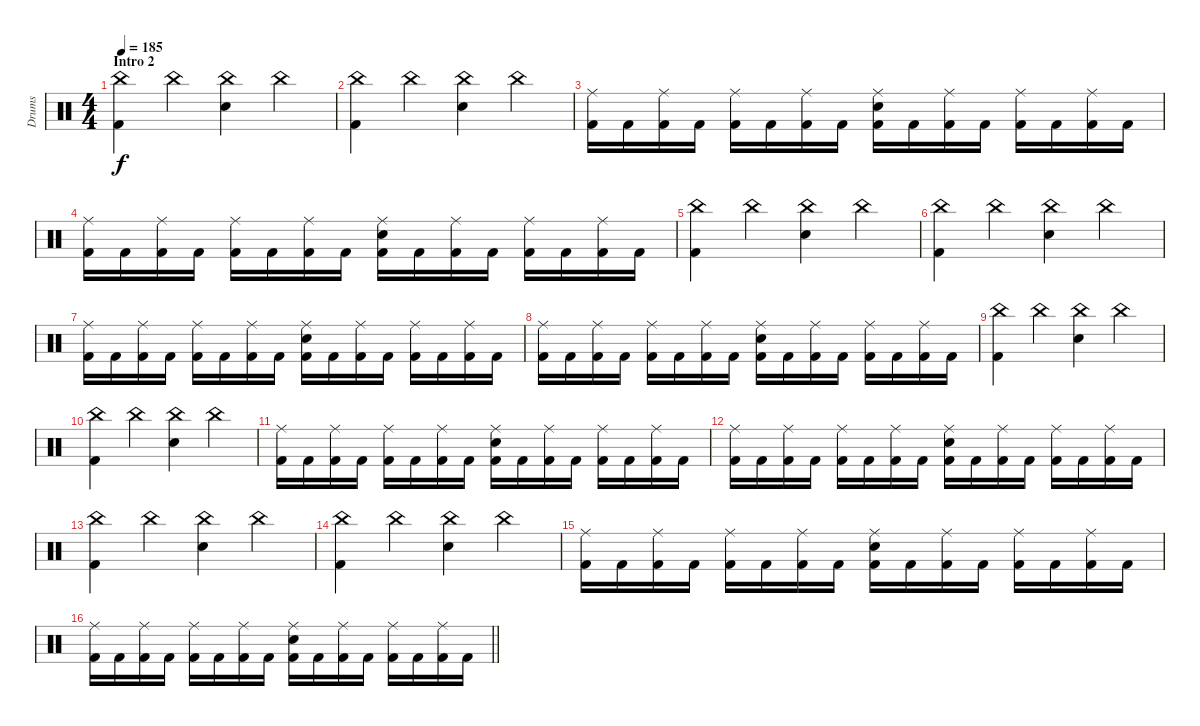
\track ("Drums" "Drums") {instrument percussion}
\staff {score}
\articulation defaults
\ts (4 4)
\section ("" "Intro 2")
\tempo 185
\clef neutral
\ks c
("China (hit)" "Kick (hit) 2").4{dy f} "China (hit)".4 ("China (hit)" "Electric Snare (hit)").4 "China (hit)".4 |
("China (hit)" "Kick (hit) 2").4 "China (hit)".4 ("China (hit)" "Electric Snare (hit)").4 "China (hit)".4 |
("Ride (middle)" "Kick (hit) 2").16 "Kick (hit) 2".16 ("Ride (middle)" "Kick (hit) 2").16 "Kick (hit) 2".16 ("Ride (middle)" "Kick (hit) 2").16 "Kick (hit) 2".16 ("Ride (middle)" "Kick (hit) 2").16 "Kick (hit) 2".16 ("Ride (middle)" "Electric Snare (hit)" "Kick (hit) 2").16 "Kick (hit) 2".16 ("Ride (middle)" "Kick (hit) 2").16 "Kick (hit) 2".16 ("Ride (middle)" "Kick (hit) 2").16 "Kick (hit) 2".16 ("Ride (middle)" "Kick (hit) 2").16 "Kick (hit) 2".16 |
("Ride (middle)" "Kick (hit) 2").16 "Kick (hit) 2".16 ("Ride (middle)" "Kick (hit) 2").16 "Kick (hit) 2".16 ("Ride (middle)" "Kick (hit) 2").16 "Kick (hit) 2".16 ("Ride (middle)" "Kick (hit) 2").16 "Kick (hit) 2".16 ("Ride (middle)" "Electric Snare (hit)" "Kick (hit) 2").16 "Kick (hit) 2".16 ("Ride (middle)" "Kick (hit) 2").16 "Kick (hit) 2".16 ("Ride (middle)" "Kick (hit) 2").16 "Kick (hit) 2".16 ("Ride (middle)" "Kick (hit) 2").16 "Kick (hit) 2".16 |
("China (hit)" "Kick (hit) 2").4 "China (hit)".4 ("China (hit)" "Electric Snare (hit)").4 "China (hit)".4 |
("China (hit)" "Kick (hit) 2").4 "China (hit)".4 ("China (hit)" "Electric Snare (hit)").4 "China (hit)".4 |
("Ride (middle)" "Kick (hit) 2").16 "Kick (hit) 2".16 ("Ride (middle)" "Kick (hit) 2").16 "Kick (hit) 2".16 ("Ride (middle)" "Kick (hit) 2").16 "Kick (hit) 2".16 ("Ride (middle)" "Kick (hit) 2").16 "Kick (hit) 2".16 ("Ride (middle)" "Electric Snare (hit)" "Kick (hit) 2").16 "Kick (hit) 2".16 ("Ride (middle)" "Kick (hit) 2").16 "Kick (hit) 2".16 ("Ride (middle)" "Kick (hit) 2").16 "Kick (hit) 2".16 ("Ride (middle)" "Kick (hit) 2").16 "Kick (hit) 2".16 |
("Ride (middle)" "Kick (hit) 2").16 "Kick (hit) 2".16 ("Ride (middle)" "Kick (hit) 2").16 "Kick (hit) 2".16 ("Ride (middle)" "Kick (hit) 2").16 "Kick (hit) 2".16 ("Ride (middle)" "Kick (hit) 2").16 "Kick (hit) 2".16 ("Ride (middle)" "Electric Snare (hit)" "Kick (hit) 2").16 "Kick (hit) 2".16 ("Ride (middle)" "Kick (hit) 2").16 "Kick (hit) 2".16 ("Ride (middle)" "Kick (hit) 2").16 "Kick (hit) 2".16 ("Ride (middle)" "Kick (hit) 2").16 "Kick (hit) 2".16 |
("China (hit)" "Kick (hit) 2").4 "China (hit)".4 ("China (hit)" "Electric Snare (hit)").4 "China (hit)".4 |
("China (hit)" "Kick (hit) 2").4 "China (hit)".4 ("China (hit)" "Electric Snare (hit)").4 "China (hit)".4 |
("Ride (middle)" "Kick (hit) 2").16 "Kick (hit) 2".16 ("Ride (middle)" "Kick (hit) 2").16 "Kick (hit) 2".16 ("Ride (middle)" "Kick (hit) 2").16 "Kick (hit) 2".16 ("Ride (middle)" "Kick (hit) 2").16 "Kick (hit) 2".16 ("Ride (middle)" "Electric Snare (hit)" "Kick (hit) 2").16 "Kick (hit) 2".16 ("Ride (middle)" "Kick (hit) 2").16 "Kick (hit) 2".16 ("Ride (middle)" "Kick (hit) 2").16 "Kick (hit) 2".16 ("Ride (middle)" "Kick (hit) 2").16 "Kick (hit) 2".16 |
("Ride (middle)" "Kick (hit) 2").16 "Kick (hit) 2".16 ("Ride (middle)" "Kick (hit) 2").16 "Kick (hit) 2".16 ("Ride (middle)" "Kick (hit) 2").16 "Kick (hit) 2".16 ("Ride (middle)" "Kick (hit) 2").16 "Kick (hit) 2".16 ("Ride (middle)" "Electric Snare (hit)" "Kick (hit) 2").16 "Kick (hit) 2".16 ("Ride (middle)" "Kick (hit) 2").16 "Kick (hit) 2".16 ("Ride (middle)" "Kick (hit) 2").16 "Kick (hit) 2".16 ("Ride (middle)" "Kick (hit) 2").16 "Kick (hit) 2".16 |
("China (hit)" "Kick (hit) 2").4 "China (hit)".4 ("China (hit)" "Electric Snare (hit)").4 "China (hit)".4 |
("China (hit)" "Kick (hit) 2").4 "China (hit)".4 ("China (hit)" "Electric Snare (hit)").4 "China (hit)".4 |
("Ride (middle)" "Kick (hit) 2").16 "Kick (hit) 2".16 ("Ride (middle)" "Kick (hit) 2").16 "Kick (hit) 2".16 ("Ride (middle)" "Kick (hit) 2").16 "Kick (hit) 2".16 ("Ride (middle)" "Kick (hit) 2").16 "Kick (hit) 2".16 ("Ride (middle)" "Electric Snare (hit)" "Kick (hit) 2").16 "Kick (hit) 2".16 ("Ride (middle)" "Kick (hit) 2").16 "Kick (hit) 2".16 ("Ride (middle)" "Kick (hit) 2").16 "Kick (hit) 2".16 ("Ride (middle)" "Kick (hit) 2").16 "Kick (hit) 2".16 |
\barLineRight lightlight
("Ride (middle)" "Kick (hit) 2").16 "Kick (hit) 2".16 ("Ride (middle)" "Kick (hit) 2").16 "Kick (hit) 2".16 ("Ride (middle)" "Kick (hit) 2").16 "Kick (hit) 2".16 ("Ride (middle)" "Kick (hit) 2").16 "Kick (hit) 2".16 ("Ride (middle)" "Electric Snare (hit)" "Kick (hit) 2").16 "Kick (hit) 2".16 ("Ride (middle)" "Kick (hit) 2").16 "Kick (hit) 2".16 ("Ride (middle)" "Kick (hit) 2").16 "Kick (hit) 2".16 ("Ride (middle)" "Kick (hit) 2").16 "Kick (hit) 2".16
